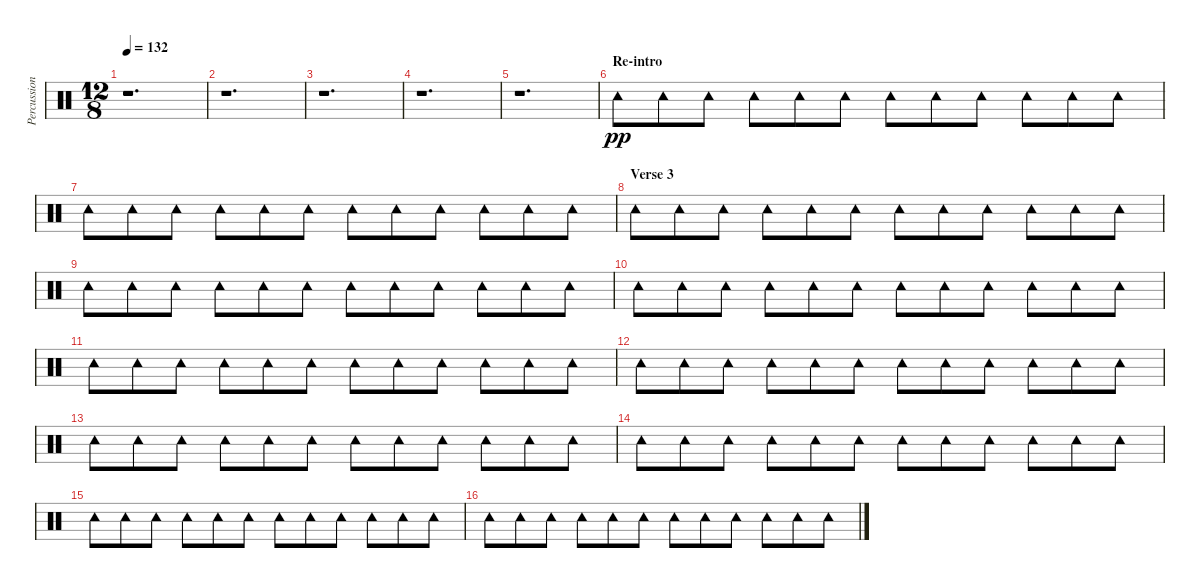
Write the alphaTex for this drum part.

\track ("Percussion" "Percussion") {instrument percussion}
\staff {score}
\articulation defaults
\ts (12 8)
\tempo 132
\clef neutral
\ks c
r.1{d dy pp} |
r.1{d} |
r.1{d} |
r.1{d} |
r.1{d} |
\section ("" "Re-intro")
"Tambourine (hit)".8 "Tambourine (hit)".8 "Tambourine (hit)".8 "Tambourine (hit)".8 "Tambourine (hit)".8 "Tambourine (hit)".8 "Tambourine (hit)".8 "Tambourine (hit)".8 "Tambourine (hit)".8 "Tambourine (hit)".8 "Tambourine (hit)".8 "Tambourine (hit)".8 |
"Tambourine (hit)".8 "Tambourine (hit)".8 "Tambourine (hit)".8 "Tambourine (hit)".8 "Tambourine (hit)".8 "Tambourine (hit)".8 "Tambourine (hit)".8 "Tambourine (hit)".8 "Tambourine (hit)".8 "Tambourine (hit)".8 "Tambourine (hit)".8 "Tambourine (hit)".8 |
\section ("" "Verse 3")
"Tambourine (hit)".8 "Tambourine (hit)".8 "Tambourine (hit)".8 "Tambourine (hit)".8 "Tambourine (hit)".8 "Tambourine (hit)".8 "Tambourine (hit)".8 "Tambourine (hit)".8 "Tambourine (hit)".8 "Tambourine (hit)".8 "Tambourine (hit)".8 "Tambourine (hit)".8 |
"Tambourine (hit)".8 "Tambourine (hit)".8 "Tambourine (hit)".8 "Tambourine (hit)".8 "Tambourine (hit)".8 "Tambourine (hit)".8 "Tambourine (hit)".8 "Tambourine (hit)".8 "Tambourine (hit)".8 "Tambourine (hit)".8 "Tambourine (hit)".8 "Tambourine (hit)".8 |
"Tambourine (hit)".8 "Tambourine (hit)".8 "Tambourine (hit)".8 "Tambourine (hit)".8 "Tambourine (hit)".8 "Tambourine (hit)".8 "Tambourine (hit)".8 "Tambourine (hit)".8 "Tambourine (hit)".8 "Tambourine (hit)".8 "Tambourine (hit)".8 "Tambourine (hit)".8 |
"Tambourine (hit)".8 "Tambourine (hit)".8 "Tambourine (hit)".8 "Tambourine (hit)".8 "Tambourine (hit)".8 "Tambourine (hit)".8 "Tambourine (hit)".8 "Tambourine (hit)".8 "Tambourine (hit)".8 "Tambourine (hit)".8 "Tambourine (hit)".8 "Tambourine (hit)".8 |
"Tambourine (hit)".8 "Tambourine (hit)".8 "Tambourine (hit)".8 "Tambourine (hit)".8 "Tambourine (hit)".8 "Tambourine (hit)".8 "Tambourine (hit)".8 "Tambourine (hit)".8 "Tambourine (hit)".8 "Tambourine (hit)".8 "Tambourine (hit)".8 "Tambourine (hit)".8 |
"Tambourine (hit)".8 "Tambourine (hit)".8 "Tambourine (hit)".8 "Tambourine (hit)".8 "Tambourine (hit)".8 "Tambourine (hit)".8 "Tambourine (hit)".8 "Tambourine (hit)".8 "Tambourine (hit)".8 "Tambourine (hit)".8 "Tambourine (hit)".8 "Tambourine (hit)".8 |
"Tambourine (hit)".8 "Tambourine (hit)".8 "Tambourine (hit)".8 "Tambourine (hit)".8 "Tambourine (hit)".8 "Tambourine (hit)".8 "Tambourine (hit)".8 "Tambourine (hit)".8 "Tambourine (hit)".8 "Tambourine (hit)".8 "Tambourine (hit)".8 "Tambourine (hit)".8 |
"Tambourine (hit)".8 "Tambourine (hit)".8 "Tambourine (hit)".8 "Tambourine (hit)".8 "Tambourine (hit)".8 "Tambourine (hit)".8 "Tambourine (hit)".8 "Tambourine (hit)".8 "Tambourine (hit)".8 "Tambourine (hit)".8 "Tambourine (hit)".8 "Tambourine (hit)".8 |
"Tambourine (hit)".8 "Tambourine (hit)".8 "Tambourine (hit)".8 "Tambourine (hit)".8 "Tambourine (hit)".8 "Tambourine (hit)".8 "Tambourine (hit)".8 "Tambourine (hit)".8 "Tambourine (hit)".8 "Tambourine (hit)".8 "Tambourine (hit)".8 "Tambourine (hit)".8
